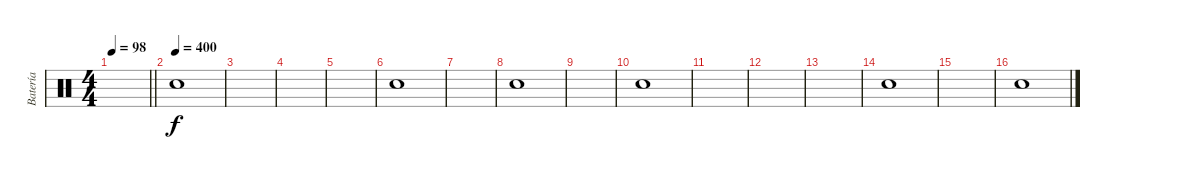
\track ("Batería" "Batería") {instrument percussion}
\staff {score}
\articulation defaults
\ts (4 4)
\tempo 98
\clef neutral
\barLineRight lightlight
\ks c
|
\tempo (400)
"Snare (hit)".1 |
|
|
|
"Snare (hit)".1 |
|
"Snare (hit)".1 |
|
"Snare (hit)".1 |
|
|
|
"Snare (hit)".1 |
|
"Snare (hit)".1
